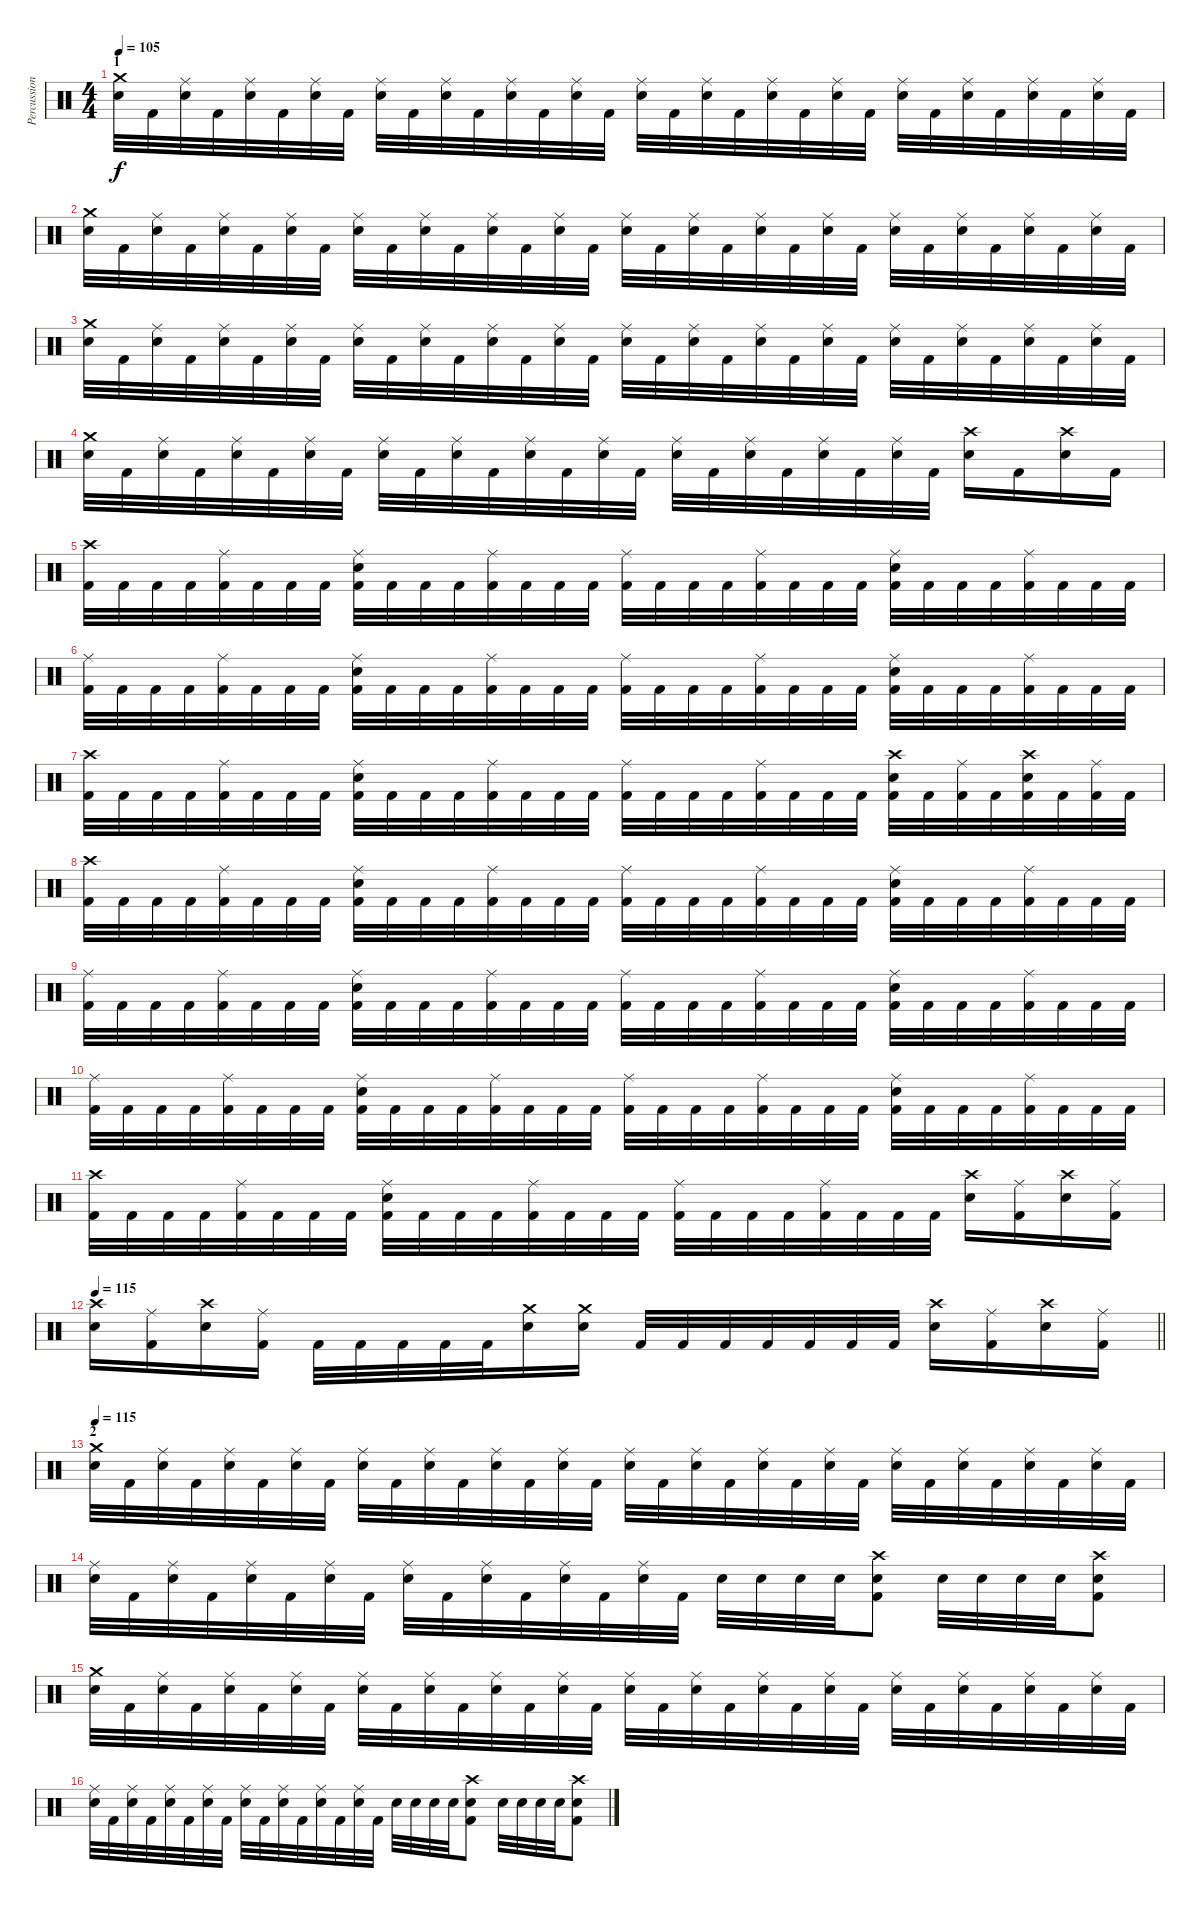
\track ("Percussion" "Percussion") {instrument percussion}
\staff {score}
\articulation defaults
\ts (4 4)
\section ("" "1")
\tempo 105
\clef neutral
\ks c
("Crash medium (hit)" "Electric Snare (hit)").32{dy f} "Kick (hit) 2".32 ("Ride (middle)" "Electric Snare (hit)").32 "Kick (hit) 2".32 ("Ride (middle)" "Electric Snare (hit)").32 "Kick (hit) 2".32 ("Ride (middle)" "Electric Snare (hit)").32 "Kick (hit) 2".32 ("Ride (middle)" "Electric Snare (hit)").32 "Kick (hit) 2".32 ("Ride (middle)" "Electric Snare (hit)").32 "Kick (hit) 2".32 ("Ride (middle)" "Electric Snare (hit)").32 "Kick (hit) 2".32 ("Ride (middle)" "Electric Snare (hit)").32 "Kick (hit) 2".32 ("Ride (middle)" "Electric Snare (hit)").32 "Kick (hit) 2".32 ("Ride (middle)" "Electric Snare (hit)").32 "Kick (hit) 2".32 ("Ride (middle)" "Electric Snare (hit)").32 "Kick (hit) 2".32 ("Ride (middle)" "Electric Snare (hit)").32 "Kick (hit) 2".32 ("Ride (middle)" "Electric Snare (hit)").32 "Kick (hit) 2".32 ("Ride (middle)" "Electric Snare (hit)").32 "Kick (hit) 2".32 ("Ride (middle)" "Electric Snare (hit)").32 "Kick (hit) 2".32 ("Ride (middle)" "Electric Snare (hit)").32 "Kick (hit) 2".32 |
("Crash medium (hit)" "Electric Snare (hit)").32 "Kick (hit) 2".32 ("Ride (middle)" "Electric Snare (hit)").32 "Kick (hit) 2".32 ("Ride (middle)" "Electric Snare (hit)").32 "Kick (hit) 2".32 ("Ride (middle)" "Electric Snare (hit)").32 "Kick (hit) 2".32 ("Ride (middle)" "Electric Snare (hit)").32 "Kick (hit) 2".32 ("Ride (middle)" "Electric Snare (hit)").32 "Kick (hit) 2".32 ("Ride (middle)" "Electric Snare (hit)").32 "Kick (hit) 2".32 ("Ride (middle)" "Electric Snare (hit)").32 "Kick (hit) 2".32 ("Ride (middle)" "Electric Snare (hit)").32 "Kick (hit) 2".32 ("Ride (middle)" "Electric Snare (hit)").32 "Kick (hit) 2".32 ("Ride (middle)" "Electric Snare (hit)").32 "Kick (hit) 2".32 ("Ride (middle)" "Electric Snare (hit)").32 "Kick (hit) 2".32 ("Ride (middle)" "Electric Snare (hit)").32 "Kick (hit) 2".32 ("Ride (middle)" "Electric Snare (hit)").32 "Kick (hit) 2".32 ("Ride (middle)" "Electric Snare (hit)").32 "Kick (hit) 2".32 ("Ride (middle)" "Electric Snare (hit)").32 "Kick (hit) 2".32 |
("Crash medium (hit)" "Electric Snare (hit)").32 "Kick (hit) 2".32 ("Ride (middle)" "Electric Snare (hit)").32 "Kick (hit) 2".32 ("Ride (middle)" "Electric Snare (hit)").32 "Kick (hit) 2".32 ("Ride (middle)" "Electric Snare (hit)").32 "Kick (hit) 2".32 ("Ride (middle)" "Electric Snare (hit)").32 "Kick (hit) 2".32 ("Ride (middle)" "Electric Snare (hit)").32 "Kick (hit) 2".32 ("Ride (middle)" "Electric Snare (hit)").32 "Kick (hit) 2".32 ("Ride (middle)" "Electric Snare (hit)").32 "Kick (hit) 2".32 ("Ride (middle)" "Electric Snare (hit)").32 "Kick (hit) 2".32 ("Ride (middle)" "Electric Snare (hit)").32 "Kick (hit) 2".32 ("Ride (middle)" "Electric Snare (hit)").32 "Kick (hit) 2".32 ("Ride (middle)" "Electric Snare (hit)").32 "Kick (hit) 2".32 ("Ride (middle)" "Electric Snare (hit)").32 "Kick (hit) 2".32 ("Ride (middle)" "Electric Snare (hit)").32 "Kick (hit) 2".32 ("Ride (middle)" "Electric Snare (hit)").32 "Kick (hit) 2".32 ("Ride (middle)" "Electric Snare (hit)").32 "Kick (hit) 2".32 |
("Crash medium (hit)" "Electric Snare (hit)").32 "Kick (hit) 2".32 ("Ride (middle)" "Electric Snare (hit)").32 "Kick (hit) 2".32 ("Ride (middle)" "Electric Snare (hit)").32 "Kick (hit) 2".32 ("Ride (middle)" "Electric Snare (hit)").32 "Kick (hit) 2".32 ("Ride (middle)" "Electric Snare (hit)").32 "Kick (hit) 2".32 ("Ride (middle)" "Electric Snare (hit)").32 "Kick (hit) 2".32 ("Ride (middle)" "Electric Snare (hit)").32 "Kick (hit) 2".32 ("Ride (middle)" "Electric Snare (hit)").32 "Kick (hit) 2".32 ("Ride (middle)" "Electric Snare (hit)").32 "Kick (hit) 2".32 ("Ride (middle)" "Electric Snare (hit)").32 "Kick (hit) 2".32 ("Ride (middle)" "Electric Snare (hit)").32 "Kick (hit) 2".32 ("Ride (middle)" "Electric Snare (hit)").32 "Kick (hit) 2".32 ("Crash high (hit)" "Electric Snare (hit)").16 "Kick (hit) 2".16 ("Crash high (hit)" "Electric Snare (hit)").16 "Kick (hit) 2".16 |
("Crash high (hit)" "Kick (hit) 2").32 "Kick (hit) 2".32 "Kick (hit) 2".32 "Kick (hit) 2".32 ("Ride (middle)" "Kick (hit) 2").32 "Kick (hit) 2".32 "Kick (hit) 2".32 "Kick (hit) 2".32 ("Ride (middle)" "Electric Snare (hit)" "Kick (hit) 2").32 "Kick (hit) 2".32 "Kick (hit) 2".32 "Kick (hit) 2".32 ("Ride (middle)" "Kick (hit) 2").32 "Kick (hit) 2".32 "Kick (hit) 2".32 "Kick (hit) 2".32 ("Ride (middle)" "Kick (hit) 2").32 "Kick (hit) 2".32 "Kick (hit) 2".32 "Kick (hit) 2".32 ("Ride (middle)" "Kick (hit) 2").32 "Kick (hit) 2".32 "Kick (hit) 2".32 "Kick (hit) 2".32 ("Ride (middle)" "Electric Snare (hit)" "Kick (hit) 2").32 "Kick (hit) 2".32 "Kick (hit) 2".32 "Kick (hit) 2".32 ("Ride (middle)" "Kick (hit) 2").32 "Kick (hit) 2".32 "Kick (hit) 2".32 "Kick (hit) 2".32 |
("Ride (middle)" "Kick (hit) 2").32 "Kick (hit) 2".32 "Kick (hit) 2".32 "Kick (hit) 2".32 ("Ride (middle)" "Kick (hit) 2").32 "Kick (hit) 2".32 "Kick (hit) 2".32 "Kick (hit) 2".32 ("Ride (middle)" "Electric Snare (hit)" "Kick (hit) 2").32 "Kick (hit) 2".32 "Kick (hit) 2".32 "Kick (hit) 2".32 ("Ride (middle)" "Kick (hit) 2").32 "Kick (hit) 2".32 "Kick (hit) 2".32 "Kick (hit) 2".32 ("Ride (middle)" "Kick (hit) 2").32 "Kick (hit) 2".32 "Kick (hit) 2".32 "Kick (hit) 2".32 ("Ride (middle)" "Kick (hit) 2").32 "Kick (hit) 2".32 "Kick (hit) 2".32 "Kick (hit) 2".32 ("Ride (middle)" "Electric Snare (hit)" "Kick (hit) 2").32 "Kick (hit) 2".32 "Kick (hit) 2".32 "Kick (hit) 2".32 ("Ride (middle)" "Kick (hit) 2").32 "Kick (hit) 2".32 "Kick (hit) 2".32 "Kick (hit) 2".32 |
("Crash high (hit)" "Kick (hit) 2").32 "Kick (hit) 2".32 "Kick (hit) 2".32 "Kick (hit) 2".32 ("Ride (middle)" "Kick (hit) 2").32 "Kick (hit) 2".32 "Kick (hit) 2".32 "Kick (hit) 2".32 ("Ride (middle)" "Electric Snare (hit)" "Kick (hit) 2").32 "Kick (hit) 2".32 "Kick (hit) 2".32 "Kick (hit) 2".32 ("Ride (middle)" "Kick (hit) 2").32 "Kick (hit) 2".32 "Kick (hit) 2".32 "Kick (hit) 2".32 ("Ride (middle)" "Kick (hit) 2").32 "Kick (hit) 2".32 "Kick (hit) 2".32 "Kick (hit) 2".32 ("Ride (middle)" "Kick (hit) 2").32 "Kick (hit) 2".32 "Kick (hit) 2".32 "Kick (hit) 2".32 ("Crash high (hit)" "Electric Snare (hit)" "Kick (hit) 2").32 "Kick (hit) 2".32 ("Ride (middle)" "Kick (hit) 2").32 "Kick (hit) 2".32 ("Crash high (hit)" "Electric Snare (hit)" "Kick (hit) 2").32 "Kick (hit) 2".32 ("Ride (middle)" "Kick (hit) 2").32 "Kick (hit) 2".32 |
("Crash high (hit)" "Kick (hit) 2").32 "Kick (hit) 2".32 "Kick (hit) 2".32 "Kick (hit) 2".32 ("Ride (middle)" "Kick (hit) 2").32 "Kick (hit) 2".32 "Kick (hit) 2".32 "Kick (hit) 2".32 ("Ride (middle)" "Electric Snare (hit)" "Kick (hit) 2").32 "Kick (hit) 2".32 "Kick (hit) 2".32 "Kick (hit) 2".32 ("Ride (middle)" "Kick (hit) 2").32 "Kick (hit) 2".32 "Kick (hit) 2".32 "Kick (hit) 2".32 ("Ride (middle)" "Kick (hit) 2").32 "Kick (hit) 2".32 "Kick (hit) 2".32 "Kick (hit) 2".32 ("Ride (middle)" "Kick (hit) 2").32 "Kick (hit) 2".32 "Kick (hit) 2".32 "Kick (hit) 2".32 ("Ride (middle)" "Electric Snare (hit)" "Kick (hit) 2").32 "Kick (hit) 2".32 "Kick (hit) 2".32 "Kick (hit) 2".32 ("Ride (middle)" "Kick (hit) 2").32 "Kick (hit) 2".32 "Kick (hit) 2".32 "Kick (hit) 2".32 |
("Ride (middle)" "Kick (hit) 2").32 "Kick (hit) 2".32 "Kick (hit) 2".32 "Kick (hit) 2".32 ("Ride (middle)" "Kick (hit) 2").32 "Kick (hit) 2".32 "Kick (hit) 2".32 "Kick (hit) 2".32 ("Ride (middle)" "Electric Snare (hit)" "Kick (hit) 2").32 "Kick (hit) 2".32 "Kick (hit) 2".32 "Kick (hit) 2".32 ("Ride (middle)" "Kick (hit) 2").32 "Kick (hit) 2".32 "Kick (hit) 2".32 "Kick (hit) 2".32 ("Ride (middle)" "Kick (hit) 2").32 "Kick (hit) 2".32 "Kick (hit) 2".32 "Kick (hit) 2".32 ("Ride (middle)" "Kick (hit) 2").32 "Kick (hit) 2".32 "Kick (hit) 2".32 "Kick (hit) 2".32 ("Ride (middle)" "Electric Snare (hit)" "Kick (hit) 2").32 "Kick (hit) 2".32 "Kick (hit) 2".32 "Kick (hit) 2".32 ("Ride (middle)" "Kick (hit) 2").32 "Kick (hit) 2".32 "Kick (hit) 2".32 "Kick (hit) 2".32 |
("Ride (middle)" "Kick (hit) 2").32 "Kick (hit) 2".32 "Kick (hit) 2".32 "Kick (hit) 2".32 ("Ride (middle)" "Kick (hit) 2").32 "Kick (hit) 2".32 "Kick (hit) 2".32 "Kick (hit) 2".32 ("Ride (middle)" "Electric Snare (hit)" "Kick (hit) 2").32 "Kick (hit) 2".32 "Kick (hit) 2".32 "Kick (hit) 2".32 ("Ride (middle)" "Kick (hit) 2").32 "Kick (hit) 2".32 "Kick (hit) 2".32 "Kick (hit) 2".32 ("Ride (middle)" "Kick (hit) 2").32 "Kick (hit) 2".32 "Kick (hit) 2".32 "Kick (hit) 2".32 ("Ride (middle)" "Kick (hit) 2").32 "Kick (hit) 2".32 "Kick (hit) 2".32 "Kick (hit) 2".32 ("Ride (middle)" "Electric Snare (hit)" "Kick (hit) 2").32 "Kick (hit) 2".32 "Kick (hit) 2".32 "Kick (hit) 2".32 ("Ride (middle)" "Kick (hit) 2").32 "Kick (hit) 2".32 "Kick (hit) 2".32 "Kick (hit) 2".32 |
("Crash high (hit)" "Kick (hit) 2").32 "Kick (hit) 2".32 "Kick (hit) 2".32 "Kick (hit) 2".32 ("Ride (middle)" "Kick (hit) 2").32 "Kick (hit) 2".32 "Kick (hit) 2".32 "Kick (hit) 2".32 ("Ride (middle)" "Electric Snare (hit)" "Kick (hit) 2").32 "Kick (hit) 2".32 "Kick (hit) 2".32 "Kick (hit) 2".32 ("Ride (middle)" "Kick (hit) 2").32 "Kick (hit) 2".32 "Kick (hit) 2".32 "Kick (hit) 2".32 ("Ride (middle)" "Kick (hit) 2").32 "Kick (hit) 2".32 "Kick (hit) 2".32 "Kick (hit) 2".32 ("Ride (middle)" "Kick (hit) 2").32 "Kick (hit) 2".32 "Kick (hit) 2".32 "Kick (hit) 2".32 ("Crash high (hit)" "Electric Snare (hit)").16 ("Ride (middle)" "Kick (hit) 2").16 ("Crash high (hit)" "Electric Snare (hit)").16 ("Ride (middle)" "Kick (hit) 2").16 |
\tempo 115
\barLineRight lightlight
("Crash high (hit)" "Electric Snare (hit)").16 ("Ride (middle)" "Kick (hit) 2").16 ("Crash high (hit)" "Electric Snare (hit)").16 ("Ride (middle)" "Kick (hit) 2").16 "Kick (hit) 2".32 "Kick (hit) 2".32 "Kick (hit) 2".32 "Kick (hit) 2".32 "Kick (hit) 2".32 ("Crash medium (hit)" "Electric Snare (hit)").16 ("Crash medium (hit)" "Electric Snare (hit)").16 "Kick (hit) 2".32 "Kick (hit) 2".32 "Kick (hit) 2".32 "Kick (hit) 2".32 "Kick (hit) 2".32 "Kick (hit) 2".32 "Kick (hit) 2".32 ("Crash high (hit)" "Electric Snare (hit)").16 ("Ride (middle)" "Kick (hit) 2").16 ("Crash high (hit)" "Electric Snare (hit)").16 ("Ride (middle)" "Kick (hit) 2").16 |
\section ("" "2")
\tempo 115
("Crash medium (hit)" "Electric Snare (hit)").32 "Kick (hit) 2".32 ("Ride (middle)" "Electric Snare (hit)").32 "Kick (hit) 2".32 ("Ride (middle)" "Electric Snare (hit)").32 "Kick (hit) 2".32 ("Ride (middle)" "Electric Snare (hit)").32 "Kick (hit) 2".32 ("Ride (middle)" "Electric Snare (hit)").32 "Kick (hit) 2".32 ("Ride (middle)" "Electric Snare (hit)").32 "Kick (hit) 2".32 ("Ride (middle)" "Electric Snare (hit)").32 "Kick (hit) 2".32 ("Ride (middle)" "Electric Snare (hit)").32 "Kick (hit) 2".32 ("Ride (middle)" "Electric Snare (hit)").32 "Kick (hit) 2".32 ("Ride (middle)" "Electric Snare (hit)").32 "Kick (hit) 2".32 ("Ride (middle)" "Electric Snare (hit)").32 "Kick (hit) 2".32 ("Ride (middle)" "Electric Snare (hit)").32 "Kick (hit) 2".32 ("Ride (middle)" "Electric Snare (hit)").32 "Kick (hit) 2".32 ("Ride (middle)" "Electric Snare (hit)").32 "Kick (hit) 2".32 ("Ride (middle)" "Electric Snare (hit)").32 "Kick (hit) 2".32 ("Ride (middle)" "Electric Snare (hit)").32 "Kick (hit) 2".32 |
("Ride (middle)" "Electric Snare (hit)").32 "Kick (hit) 2".32 ("Ride (middle)" "Electric Snare (hit)").32 "Kick (hit) 2".32 ("Ride (middle)" "Electric Snare (hit)").32 "Kick (hit) 2".32 ("Ride (middle)" "Electric Snare (hit)").32 "Kick (hit) 2".32 ("Ride (middle)" "Electric Snare (hit)").32 "Kick (hit) 2".32 ("Ride (middle)" "Electric Snare (hit)").32 "Kick (hit) 2".32 ("Ride (middle)" "Electric Snare (hit)").32 "Kick (hit) 2".32 ("Ride (middle)" "Electric Snare (hit)").32 "Kick (hit) 2".32 "Electric Snare (hit)".32 "Electric Snare (hit)".32 "Electric Snare (hit)".32 "Electric Snare (hit)".32 ("Crash high (hit)" "Electric Snare (hit)" "Kick (hit) 2").8 "Electric Snare (hit)".32 "Electric Snare (hit)".32 "Electric Snare (hit)".32 "Electric Snare (hit)".32 ("Crash high (hit)" "Electric Snare (hit)" "Kick (hit) 2").8 |
("Crash medium (hit)" "Electric Snare (hit)").32 "Kick (hit) 2".32 ("Ride (middle)" "Electric Snare (hit)").32 "Kick (hit) 2".32 ("Ride (middle)" "Electric Snare (hit)").32 "Kick (hit) 2".32 ("Ride (middle)" "Electric Snare (hit)").32 "Kick (hit) 2".32 ("Ride (middle)" "Electric Snare (hit)").32 "Kick (hit) 2".32 ("Ride (middle)" "Electric Snare (hit)").32 "Kick (hit) 2".32 ("Ride (middle)" "Electric Snare (hit)").32 "Kick (hit) 2".32 ("Ride (middle)" "Electric Snare (hit)").32 "Kick (hit) 2".32 ("Ride (middle)" "Electric Snare (hit)").32 "Kick (hit) 2".32 ("Ride (middle)" "Electric Snare (hit)").32 "Kick (hit) 2".32 ("Ride (middle)" "Electric Snare (hit)").32 "Kick (hit) 2".32 ("Ride (middle)" "Electric Snare (hit)").32 "Kick (hit) 2".32 ("Ride (middle)" "Electric Snare (hit)").32 "Kick (hit) 2".32 ("Ride (middle)" "Electric Snare (hit)").32 "Kick (hit) 2".32 ("Ride (middle)" "Electric Snare (hit)").32 "Kick (hit) 2".32 ("Ride (middle)" "Electric Snare (hit)").32 "Kick (hit) 2".32 |
("Ride (middle)" "Electric Snare (hit)").32 "Kick (hit) 2".32 ("Ride (middle)" "Electric Snare (hit)").32 "Kick (hit) 2".32 ("Ride (middle)" "Electric Snare (hit)").32 "Kick (hit) 2".32 ("Ride (middle)" "Electric Snare (hit)").32 "Kick (hit) 2".32 ("Ride (middle)" "Electric Snare (hit)").32 "Kick (hit) 2".32 ("Ride (middle)" "Electric Snare (hit)").32 "Kick (hit) 2".32 ("Ride (middle)" "Electric Snare (hit)").32 "Kick (hit) 2".32 ("Ride (middle)" "Electric Snare (hit)").32 "Kick (hit) 2".32 "Electric Snare (hit)".32 "Electric Snare (hit)".32 "Electric Snare (hit)".32 "Electric Snare (hit)".32 ("Crash high (hit)" "Electric Snare (hit)" "Kick (hit) 2").8 "Electric Snare (hit)".32 "Electric Snare (hit)".32 "Electric Snare (hit)".32 "Electric Snare (hit)".32 ("Crash high (hit)" "Electric Snare (hit)" "Kick (hit) 2").8
